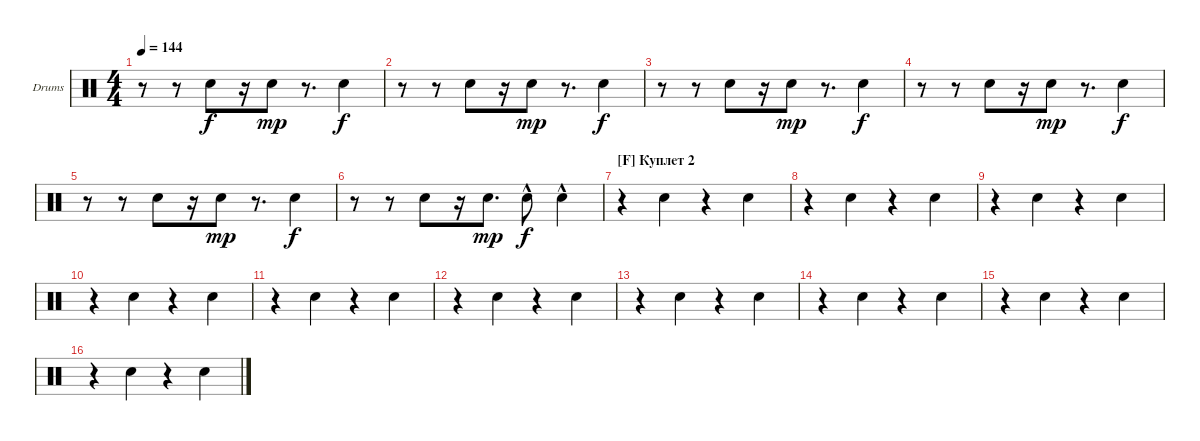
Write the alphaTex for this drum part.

\defaultSystemsLayout 4
\bracketExtendMode groupsimilarinstruments
\firstSystemTrackNameOrientation horizontal
\otherSystemsTrackNameOrientation horizontal
\track ("Snare" "Drums") {instrument percussion}
\staff {score}
\articulation defaults
\ts (4 4)
\tempo 144
\clef neutral
\ks c
r.8{dy f} r.8 "Snare (hit) 2".8 r.16 "Snare (hit) 2".8{dy mp} r.8{d} "Snare (hit) 2".4{dy f} |
r.8 r.8 "Snare (hit) 2".8 r.16 "Snare (hit) 2".8{dy mp} r.8{d} "Snare (hit) 2".4{dy f} |
r.8 r.8 "Snare (hit) 2".8 r.16 "Snare (hit) 2".8{dy mp} r.8{d} "Snare (hit) 2".4{dy f} |
r.8 r.8 "Snare (hit) 2".8 r.16 "Snare (hit) 2".8{dy mp} r.8{d} "Snare (hit) 2".4{dy f} |
r.8 r.8 "Snare (hit) 2".8 r.16 "Snare (hit) 2".8{dy mp} r.8{d} "Snare (hit) 2".4{dy f} |
r.8 r.8 "Snare (hit) 2".8 r.16 "Snare (hit) 2".8{d dy mp} "Snare (hit) 2"{hac}.8{dy f} "Snare (hit) 2"{hac}.4 |
\section ("F" "Куплет 2")
r.4 "Snare (hit) 2".4 r.4 "Snare (hit) 2".4 |
r.4 "Snare (hit) 2".4 r.4 "Snare (hit) 2".4 |
r.4 "Snare (hit) 2".4 r.4 "Snare (hit) 2".4 |
r.4 "Snare (hit) 2".4 r.4 "Snare (hit) 2".4 |
r.4 "Snare (hit) 2".4 r.4 "Snare (hit) 2".4 |
r.4 "Snare (hit) 2".4 r.4 "Snare (hit) 2".4 |
r.4 "Snare (hit) 2".4 r.4 "Snare (hit) 2".4 |
r.4 "Snare (hit) 2".4 r.4 "Snare (hit) 2".4 |
r.4 "Snare (hit) 2".4 r.4 "Snare (hit) 2".4 |
r.4 "Snare (hit) 2".4 r.4 "Snare (hit) 2".4
